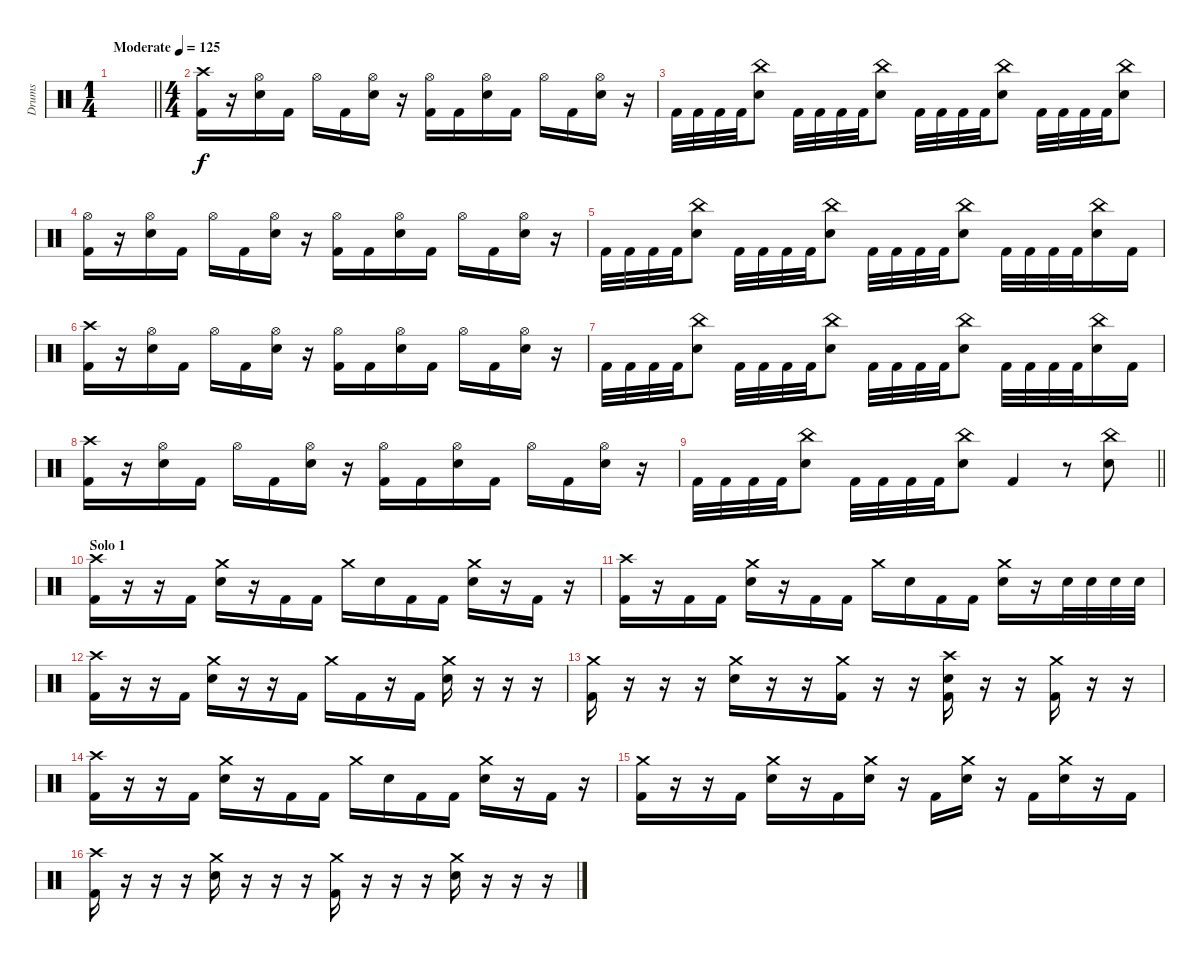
\track ("Drums" "Drums") {instrument percussion}
\staff
\articulation defaults
\ts (1 4)
\tempo (125 "Moderate")
\clef neutral
\barLineRight lightlight
\ks c
|
\ts (4 4)
("Crash high (hit)" "Kick (hit) 2").16 r.16 ("Hi-Hat (open)" "Electric Snare (hit)").16 "Kick (hit) 2".16 "Hi-Hat (open)".16 "Kick (hit) 2".16 ("Hi-Hat (open)" "Electric Snare (hit)").16 r.16 ("Hi-Hat (open)" "Kick (hit) 2").16 "Kick (hit) 2".16 ("Hi-Hat (open)" "Electric Snare (hit)").16 "Kick (hit) 2".16 "Hi-Hat (open)".16 "Kick (hit) 2".16 ("Hi-Hat (open)" "Electric Snare (hit)").16 r.16 |
"Kick (hit) 2".32 "Kick (hit) 2".32 "Kick (hit) 2".32 "Kick (hit) 2".32 ("China (hit)" "Electric Snare (hit)").8 "Kick (hit) 2".32 "Kick (hit) 2".32 "Kick (hit) 2".32 "Kick (hit) 2".32 ("China (hit)" "Electric Snare (hit)").8 "Kick (hit) 2".32 "Kick (hit) 2".32 "Kick (hit) 2".32 "Kick (hit) 2".32 ("China (hit)" "Electric Snare (hit)").8 "Kick (hit) 2".32 "Kick (hit) 2".32 "Kick (hit) 2".32 "Kick (hit) 2".32 ("China (hit)" "Electric Snare (hit)").8 |
("Hi-Hat (open)" "Kick (hit) 2").16 r.16 ("Hi-Hat (open)" "Electric Snare (hit)").16 "Kick (hit) 2".16 "Hi-Hat (open)".16 "Kick (hit) 2".16 ("Hi-Hat (open)" "Electric Snare (hit)").16 r.16 ("Hi-Hat (open)" "Kick (hit) 2").16 "Kick (hit) 2".16 ("Hi-Hat (open)" "Electric Snare (hit)").16 "Kick (hit) 2".16 "Hi-Hat (open)".16 "Kick (hit) 2".16 ("Hi-Hat (open)" "Electric Snare (hit)").16 r.16 |
"Kick (hit) 2".32 "Kick (hit) 2".32 "Kick (hit) 2".32 "Kick (hit) 2".32 ("China (hit)" "Electric Snare (hit)").8 "Kick (hit) 2".32 "Kick (hit) 2".32 "Kick (hit) 2".32 "Kick (hit) 2".32 ("China (hit)" "Electric Snare (hit)").8 "Kick (hit) 2".32 "Kick (hit) 2".32 "Kick (hit) 2".32 "Kick (hit) 2".32 ("China (hit)" "Electric Snare (hit)").8 "Kick (hit) 2".32 "Kick (hit) 2".32 "Kick (hit) 2".32 "Kick (hit) 2".32 ("China (hit)" "Electric Snare (hit)").16 "Kick (hit) 2".16 |
("Crash high (hit)" "Kick (hit) 2").16 r.16 ("Hi-Hat (open)" "Electric Snare (hit)").16 "Kick (hit) 2".16 "Hi-Hat (open)".16 "Kick (hit) 2".16 ("Hi-Hat (open)" "Electric Snare (hit)").16 r.16 ("Hi-Hat (open)" "Kick (hit) 2").16 "Kick (hit) 2".16 ("Hi-Hat (open)" "Electric Snare (hit)").16 "Kick (hit) 2".16 "Hi-Hat (open)".16 "Kick (hit) 2".16 ("Hi-Hat (open)" "Electric Snare (hit)").16 r.16 |
"Kick (hit) 2".32 "Kick (hit) 2".32 "Kick (hit) 2".32 "Kick (hit) 2".32 ("China (hit)" "Electric Snare (hit)").8 "Kick (hit) 2".32 "Kick (hit) 2".32 "Kick (hit) 2".32 "Kick (hit) 2".32 ("China (hit)" "Electric Snare (hit)").8 "Kick (hit) 2".32 "Kick (hit) 2".32 "Kick (hit) 2".32 "Kick (hit) 2".32 ("China (hit)" "Electric Snare (hit)").8 "Kick (hit) 2".32 "Kick (hit) 2".32 "Kick (hit) 2".32 "Kick (hit) 2".32 ("China (hit)" "Electric Snare (hit)").16 "Kick (hit) 2".16 |
("Crash high (hit)" "Kick (hit) 2").16 r.16 ("Hi-Hat (open)" "Electric Snare (hit)").16 "Kick (hit) 2".16 "Hi-Hat (open)".16 "Kick (hit) 2".16 ("Hi-Hat (open)" "Electric Snare (hit)").16 r.16 ("Hi-Hat (open)" "Kick (hit) 2").16 "Kick (hit) 2".16 ("Hi-Hat (open)" "Electric Snare (hit)").16 "Kick (hit) 2".16 "Hi-Hat (open)".16 "Kick (hit) 2".16 ("Hi-Hat (open)" "Electric Snare (hit)").16 r.16 |
\barLineRight lightlight "Kick (hit) 2".32 "Kick (hit) 2".32 "Kick (hit) 2".32 "Kick (hit) 2".32
("China (hit)" "Electric Snare (hit)").8 "Kick (hit) 2".32 "Kick (hit) 2".32 "Kick (hit) 2".32 "Kick (hit) 2".32 ("China (hit)" "Electric Snare (hit)").8 "Kick (hit) 2".4 r.8 ("China (hit)" "Electric Snare (hit)").8 |
\section ("" "Solo 1")
("Crash high (hit)" "Kick (hit) 2").16 r.16 r.16 "Kick (hit) 2".16 ("Crash medium (hit)" "Electric Snare (hit)").16 r.16 "Kick (hit) 2".16 "Kick (hit) 2".16 "Crash medium (hit)".16 "Electric Snare (hit)".16 "Kick (hit) 2".16 "Kick (hit) 2".16 ("Crash medium (hit)" "Electric Snare (hit)").16 r.16 "Kick (hit) 2".16 r.16 |
("Crash high (hit)" "Kick (hit) 2").16 r.16 "Kick (hit) 2".16 "Kick (hit) 2".16 ("Crash medium (hit)" "Electric Snare (hit)").16 r.16 "Kick (hit) 2".16 "Kick (hit) 2".16 "Crash medium (hit)".16 "Electric Snare (hit)".16 "Kick (hit) 2".16 "Kick (hit) 2".16 ("Crash medium (hit)" "Electric Snare (hit)").16 r.16 "Electric Snare (hit)".32 "Electric Snare (hit)".32 "Electric Snare (hit)".32 "Electric Snare (hit)".32 |
("Crash high (hit)" "Kick (hit) 2").16 r.16 r.16 "Kick (hit) 2".16 ("Crash medium (hit)" "Electric Snare (hit)").16 r.16 r.16 "Kick (hit) 2".16 "Crash medium (hit)".16 "Kick (hit) 2".16 r.16 "Kick (hit) 2".16 ("Crash medium (hit)" "Electric Snare (hit)").16 r.16 r.16 r.16 |
("Crash medium (hit)" "Kick (hit) 2").16 r.16 r.16 r.16 ("Crash medium (hit)" "Electric Snare (hit)").16 r.16 r.16 ("Crash medium (hit)" "Kick (hit) 2").16 r.16 r.16 ("Crash high (hit)" "Electric Snare (hit)" "Kick (hit) 2").16 r.16 r.16 ("Crash medium (hit)" "Kick (hit) 2").16 r.16 r.16 |
("Crash high (hit)" "Kick (hit) 2").16 r.16 r.16 "Kick (hit) 2".16 ("Crash medium (hit)" "Electric Snare (hit)").16 r.16 "Kick (hit) 2".16 "Kick (hit) 2".16 "Crash medium (hit)".16 "Electric Snare (hit)".16 "Kick (hit) 2".16 "Kick (hit) 2".16 ("Crash medium (hit)" "Electric Snare (hit)").16 r.16 "Kick (hit) 2".16 r.16 |
("Crash medium (hit)" "Kick (hit) 2").16 r.16 r.16 "Kick (hit) 2".16 ("Crash medium (hit)" "Electric Snare (hit)").16 r.16 "Kick (hit) 2".16 ("Crash medium (hit)" "Electric Snare (hit)").16 r.16 "Kick (hit) 2".16 ("Crash medium (hit)" "Electric Snare (hit)").16 r.16 "Kick (hit) 2".16 ("Crash medium (hit)" "Electric Snare (hit)").16 r.16 "Kick (hit) 2".16 |
("Crash high (hit)" "Kick (hit) 2").16 r.16 r.16 r.16 ("Crash medium (hit)" "Electric Snare (hit)").16 r.16 r.16 r.16 ("Crash medium (hit)" "Kick (hit) 2").16 r.16 r.16 r.16 ("Crash medium (hit)" "Electric Snare (hit)").16 r.16 r.16 r.16
